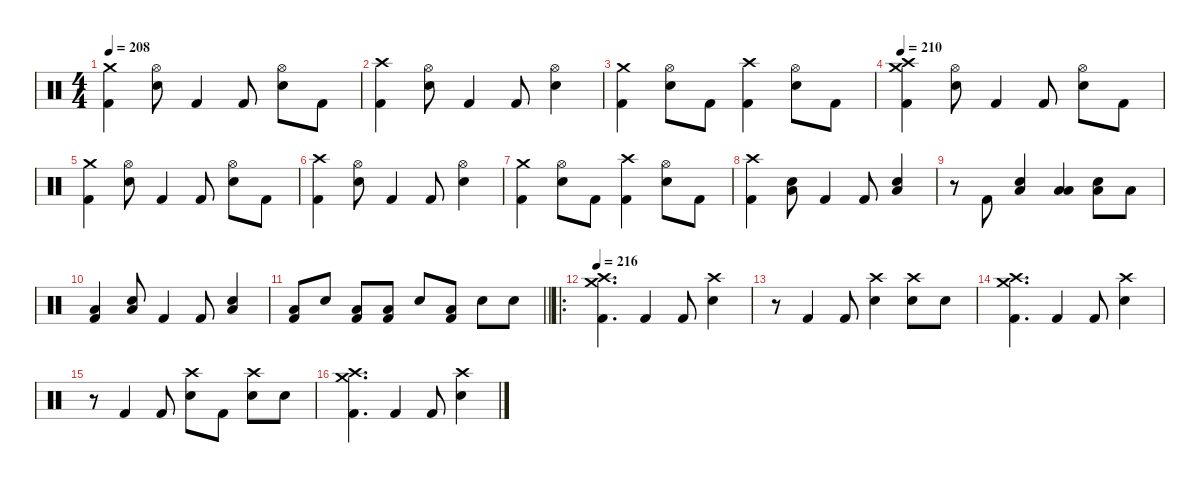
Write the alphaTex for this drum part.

\defaultSystemsLayout 4
\hideDynamics
\bracketExtendMode nobrackets
\singleTrackTrackNamePolicy hidden
\multiTrackTrackNamePolicy hidden
\firstSystemTrackNameMode fullname
\otherSystemsTrackNameOrientation horizontal
\track ("Drums" "drm.") {defaultSystemsLayout 4 instrument percussion}
\staff {score}
\articulation defaults
\ts (4 4)
\tempo 208
\clef neutral
\ks c
("Crash medium (hit)" "Kick (hit) 2").4{dy f beam Down} ("Hi-Hat (open)" "Snare (hit) 2").8{beam Down} "Kick (hit) 2".4{beam Up} "Kick (hit) 2".8{beam Up} ("Hi-Hat (open)" "Snare (hit) 2").8{beam Down} "Kick (hit) 2".8{dy mp beam Down} |
("Crash high (hit)" "Kick (hit) 2").4{dy f beam Down} ("Hi-Hat (open)" "Snare (hit) 2").8{beam Down} "Kick (hit) 2".4{beam Up} "Kick (hit) 2".8{beam Up} ("Hi-Hat (open)" "Snare (hit) 2").4{beam Down} |
("Crash medium (hit)" "Kick (hit) 2").4{beam Down} ("Hi-Hat (open)" "Snare (hit) 2").8{beam Down} "Kick (hit) 2".8{beam Down} ("Crash high (hit)" "Kick (hit) 2").4{beam Down} ("Hi-Hat (open)" "Snare (hit) 2").8{beam Down} "Kick (hit) 2".8{beam Down} |
\tempo 210
("Crash high (hit)" "Crash medium (hit)" "Kick (hit) 2").4{beam Down} ("Hi-Hat (open)" "Snare (hit) 2").8{beam Down} "Kick (hit) 2".4{beam Up} "Kick (hit) 2".8{beam Up} ("Hi-Hat (open)" "Snare (hit) 2").8{beam Down} "Kick (hit) 2".8{dy mp beam Down} |
("Crash medium (hit)" "Kick (hit) 2").4{dy f beam Down} ("Hi-Hat (open)" "Snare (hit) 2").8{beam Down} "Kick (hit) 2".4{beam Up} "Kick (hit) 2".8{beam Up} ("Hi-Hat (open)" "Snare (hit) 2").8{beam Down} "Kick (hit) 2".8{dy mp beam Down} |
("Crash high (hit)" "Kick (hit) 2").4{dy f beam Down} ("Hi-Hat (open)" "Snare (hit) 2").8{beam Down} "Kick (hit) 2".4{beam Up} "Kick (hit) 2".8{beam Up} ("Hi-Hat (open)" "Snare (hit) 2").4{beam Down} |
("Crash medium (hit)" "Kick (hit) 2").4{beam Down} ("Hi-Hat (open)" "Snare (hit) 2").8{beam Down} "Kick (hit) 2".8{beam Down} ("Crash high (hit)" "Kick (hit) 2").4{beam Down} ("Hi-Hat (open)" "Snare (hit) 2").8{beam Down} "Kick (hit) 2".8{beam Down} |
("Crash high (hit)" "Kick (hit) 2").4{beam Down} ("Low Floor Tom (hit)" "Snare (hit) 2").8{beam Down} "Kick (hit) 2".4{beam Up} "Kick (hit) 2".8{beam Up} ("Low Floor Tom (hit)" "Snare (hit) 2").4{beam Up} |
r.8{beam Down} "Kick (hit) 2".8{beam Up} ("Low Floor Tom (hit)" "Snare (hit) 2").4{beam Up} ("Low Floor Tom (hit)" "Low Floor Tom (hit)").4{beam Up} ("Low Floor Tom (hit)" "Snare (hit) 2").8{beam Down} "Low Floor Tom (hit)".8{beam Down} |
("Low Floor Tom (hit)" "Kick (hit) 2").4{beam Up} ("Low Floor Tom (hit)" "Snare (hit) 2").8{beam Up} "Kick (hit) 2".4{beam Up} "Kick (hit) 2".8{beam Up} ("Low Floor Tom (hit)" "Snare (hit) 2").4{beam Up} |
\barLineRight lightlight
("Low Floor Tom (hit)" "Kick (hit) 2").8{beam Up} "Snare (hit) 2".8{beam Up} ("Low Floor Tom (hit)" "Kick (hit) 2").8{beam Up} ("Low Floor Tom (hit)" "Kick (hit) 2").8{beam Up} "Snare (hit) 2".8{beam Up} ("Low Floor Tom (hit)" "Kick (hit) 2").8{beam Up} "Snare (hit) 2".8{beam Down} "Snare (hit) 2".8{beam Down} |
\ro
\tempo 216
("Crash high (hit)" "Crash medium (hit)" "Kick (hit) 2").4{d beam Down} "Kick (hit) 2".4{beam Up} "Kick (hit) 2".8{beam Up} ("Crash high (hit)" "Snare (hit) 2").4{beam Down} |
r.8{beam Down} "Kick (hit) 2".4{beam Up} "Kick (hit) 2".8{beam Up} ("Crash high (hit)" "Snare (hit) 2").4{beam Down} ("Crash high (hit)" "Snare (hit) 2").8{beam Down} "Snare (hit) 2".8{beam Down} |
("Crash high (hit)" "Crash medium (hit)" "Kick (hit) 2").4{d beam Down} "Kick (hit) 2".4{beam Up} "Kick (hit) 2".8{beam Up} ("Crash high (hit)" "Snare (hit) 2").4{beam Down} |
r.8{beam Down} "Kick (hit) 2".4{beam Up} "Kick (hit) 2".8{beam Up} ("Crash high (hit)" "Snare (hit) 2").8{beam Down} "Kick (hit) 2".8{beam Down} ("Crash high (hit)" "Snare (hit) 2").8{beam Down} "Snare (hit) 2".8{beam Down} |
("Crash high (hit)" "Crash medium (hit)" "Kick (hit) 2").4{d beam Down} "Kick (hit) 2".4{beam Up} "Kick (hit) 2".8{beam Up} ("Crash high (hit)" "Snare (hit) 2").4{beam Down}
